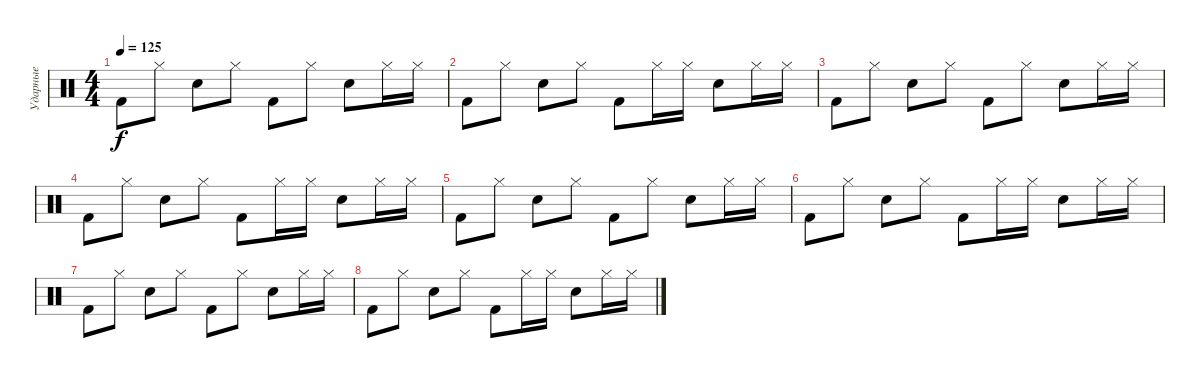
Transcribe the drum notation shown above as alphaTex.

\track ("Ударные" "Ударные") {instrument percussion}
\staff {score}
\articulation defaults
\ts (4 4)
\tempo 125
\clef neutral
\ks c "Kick (hit) 2".8{dy f} "Hi-Hat (closed)".8 "Snare (hit) 2".8 "Hi-Hat (closed)".8 "Kick (hit) 2".8 "Hi-Hat (closed)".8 "Snare (hit) 2".8 "Hi-Hat (closed)".16 "Hi-Hat (closed)".16
|
"Kick (hit) 2".8 "Hi-Hat (closed)".8 "Snare (hit) 2".8 "Hi-Hat (closed)".8 "Kick (hit) 2".8 "Hi-Hat (closed)".16 "Hi-Hat (closed)".16 "Snare (hit) 2".8 "Hi-Hat (closed)".16 "Hi-Hat (closed)".16 |
"Kick (hit) 2".8 "Hi-Hat (closed)".8 "Snare (hit) 2".8 "Hi-Hat (closed)".8 "Kick (hit) 2".8 "Hi-Hat (closed)".8 "Snare (hit) 2".8 "Hi-Hat (closed)".16 "Hi-Hat (closed)".16 |
"Kick (hit) 2".8 "Hi-Hat (closed)".8 "Snare (hit) 2".8 "Hi-Hat (closed)".8 "Kick (hit) 2".8 "Hi-Hat (closed)".16 "Hi-Hat (closed)".16 "Snare (hit) 2".8 "Hi-Hat (closed)".16 "Hi-Hat (closed)".16 |
"Kick (hit) 2".8 "Hi-Hat (closed)".8 "Snare (hit) 2".8 "Hi-Hat (closed)".8 "Kick (hit) 2".8 "Hi-Hat (closed)".8 "Snare (hit) 2".8 "Hi-Hat (closed)".16 "Hi-Hat (closed)".16 |
"Kick (hit) 2".8 "Hi-Hat (closed)".8 "Snare (hit) 2".8 "Hi-Hat (closed)".8 "Kick (hit) 2".8 "Hi-Hat (closed)".16 "Hi-Hat (closed)".16 "Snare (hit) 2".8 "Hi-Hat (closed)".16 "Hi-Hat (closed)".16 |
"Kick (hit) 2".8 "Hi-Hat (closed)".8 "Snare (hit) 2".8 "Hi-Hat (closed)".8 "Kick (hit) 2".8 "Hi-Hat (closed)".8 "Snare (hit) 2".8 "Hi-Hat (closed)".16 "Hi-Hat (closed)".16 |
"Kick (hit) 2".8 "Hi-Hat (closed)".8 "Snare (hit) 2".8 "Hi-Hat (closed)".8 "Kick (hit) 2".8 "Hi-Hat (closed)".16 "Hi-Hat (closed)".16 "Snare (hit) 2".8 "Hi-Hat (closed)".16 "Hi-Hat (closed)".16
